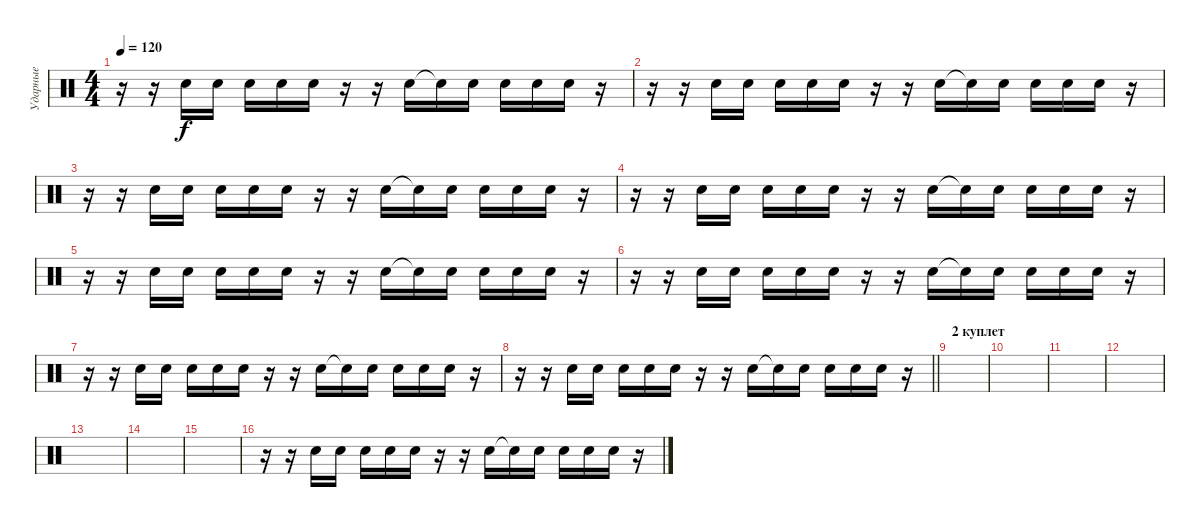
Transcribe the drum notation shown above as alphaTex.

\track ("Ударные" "Ударные") {instrument percussion}
\staff {score}
\articulation defaults
\ts (4 4)
\tempo 120
\clef neutral
\ks c
r.16{dy f} r.16 "Hand Clap (hit)".16 "Hand Clap (hit)".16 "Hand Clap (hit)".16 "Hand Clap (hit)".16 "Hand Clap (hit)".16 r.16 r.16 "Hand Clap (hit)".16 "Hand Clap (hit)"{t}.16 "Hand Clap (hit)".16 "Hand Clap (hit)".16 "Hand Clap (hit)".16 "Hand Clap (hit)".16 r.16 |
r.16 r.16 "Hand Clap (hit)".16 "Hand Clap (hit)".16 "Hand Clap (hit)".16 "Hand Clap (hit)".16 "Hand Clap (hit)".16 r.16 r.16 "Hand Clap (hit)".16 "Hand Clap (hit)"{t}.16 "Hand Clap (hit)".16 "Hand Clap (hit)".16 "Hand Clap (hit)".16 "Hand Clap (hit)".16 r.16 |
r.16 r.16 "Hand Clap (hit)".16 "Hand Clap (hit)".16 "Hand Clap (hit)".16 "Hand Clap (hit)".16 "Hand Clap (hit)".16 r.16 r.16 "Hand Clap (hit)".16 "Hand Clap (hit)"{t}.16 "Hand Clap (hit)".16 "Hand Clap (hit)".16 "Hand Clap (hit)".16 "Hand Clap (hit)".16 r.16 |
r.16 r.16 "Hand Clap (hit)".16 "Hand Clap (hit)".16 "Hand Clap (hit)".16 "Hand Clap (hit)".16 "Hand Clap (hit)".16 r.16 r.16 "Hand Clap (hit)".16 "Hand Clap (hit)"{t}.16 "Hand Clap (hit)".16 "Hand Clap (hit)".16 "Hand Clap (hit)".16 "Hand Clap (hit)".16 r.16 |
r.16 r.16 "Hand Clap (hit)".16 "Hand Clap (hit)".16 "Hand Clap (hit)".16 "Hand Clap (hit)".16 "Hand Clap (hit)".16 r.16 r.16 "Hand Clap (hit)".16 "Hand Clap (hit)"{t}.16 "Hand Clap (hit)".16 "Hand Clap (hit)".16 "Hand Clap (hit)".16 "Hand Clap (hit)".16 r.16 |
r.16 r.16 "Hand Clap (hit)".16 "Hand Clap (hit)".16 "Hand Clap (hit)".16 "Hand Clap (hit)".16 "Hand Clap (hit)".16 r.16 r.16 "Hand Clap (hit)".16 "Hand Clap (hit)"{t}.16 "Hand Clap (hit)".16 "Hand Clap (hit)".16 "Hand Clap (hit)".16 "Hand Clap (hit)".16 r.16 |
r.16 r.16 "Hand Clap (hit)".16 "Hand Clap (hit)".16 "Hand Clap (hit)".16 "Hand Clap (hit)".16 "Hand Clap (hit)".16 r.16 r.16 "Hand Clap (hit)".16 "Hand Clap (hit)"{t}.16 "Hand Clap (hit)".16 "Hand Clap (hit)".16 "Hand Clap (hit)".16 "Hand Clap (hit)".16 r.16 |
\barLineRight lightlight
r.16 r.16 "Hand Clap (hit)".16 "Hand Clap (hit)".16 "Hand Clap (hit)".16 "Hand Clap (hit)".16 "Hand Clap (hit)".16 r.16 r.16 "Hand Clap (hit)".16 "Hand Clap (hit)"{t}.16 "Hand Clap (hit)".16 "Hand Clap (hit)".16 "Hand Clap (hit)".16 "Hand Clap (hit)".16 r.16 |
\section ("" "2 куплет")
|
|
|
|
|
|
|
r.16 r.16 "Hand Clap (hit)".16 "Hand Clap (hit)".16 "Hand Clap (hit)".16 "Hand Clap (hit)".16 "Hand Clap (hit)".16 r.16 r.16 "Hand Clap (hit)".16 "Hand Clap (hit)"{t}.16 "Hand Clap (hit)".16 "Hand Clap (hit)".16 "Hand Clap (hit)".16 "Hand Clap (hit)".16 r.16
